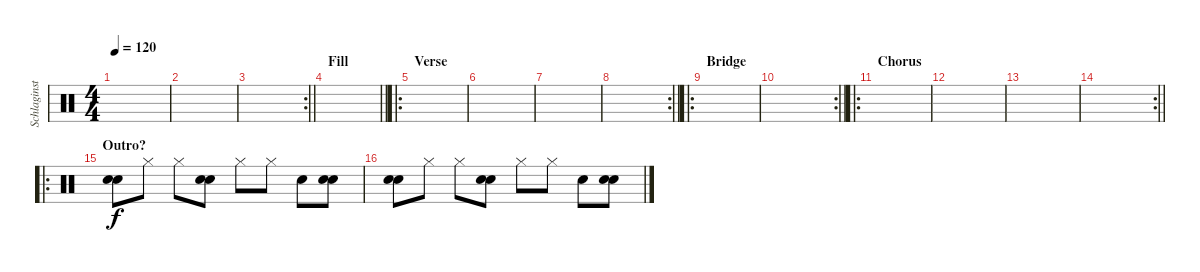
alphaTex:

\track ("Schlaginstrumente - Auswahl" "Schlaginst") {instrument percussion}
\staff {score}
\articulation defaults
\ts (4 4)
\tempo 120
\clef neutral
\ks c
|
|
\rc 2
\barLineRight lightlight
|
\section ("" "Fill")
\barLineRight lightlight
|
\ro
\section ("" "Verse")
|
|
|
\rc 2
\barLineRight lightlight
|
\ro
\section ("" "Bridge")
|
\rc 2
\barLineRight lightlight
|
\ro
\section ("" "Chorus")
|
|
|
\rc 2
\barLineRight lightlight
|
\ro
\section ("" "Outro?")
("Hand Clap (hit)" "Hand Clap (hit)").8 "Hi-Hat (closed)".8 "Hi-Hat (closed)".8 ("Hand Clap (hit)" "Hand Clap (hit)").8 "Hi-Hat (closed)".8 "Hi-Hat (closed)".8 "Hand Clap (hit)".8 ("Hand Clap (hit)" "Hand Clap (hit)").8 |
("Hand Clap (hit)" "Hand Clap (hit)").8 "Hi-Hat (closed)".8 "Hi-Hat (closed)".8 ("Hand Clap (hit)" "Hand Clap (hit)").8 "Hi-Hat (closed)".8 "Hi-Hat (closed)".8 "Hand Clap (hit)".8 ("Hand Clap (hit)" "Hand Clap (hit)").8
